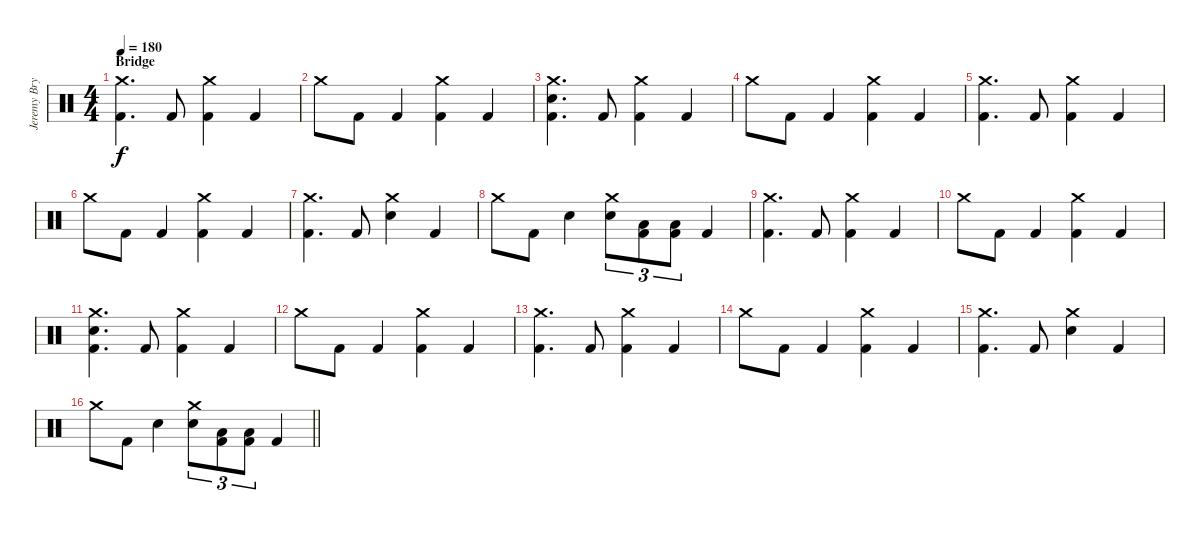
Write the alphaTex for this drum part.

\track ("Jeremy Bryan - Drums" "Jeremy Bry") {instrument percussion}
\staff {score}
\articulation defaults
\ts (4 4)
\section ("" "Bridge")
\tempo 180
\clef neutral
\ks c
("Crash medium (hit)" "Kick (hit) 2").4{d dy f} "Kick (hit) 2".8 ("Crash medium (hit)" "Kick (hit) 2").4 "Kick (hit) 2".4 |
"Crash medium (hit)".8 "Kick (hit) 2".8 "Kick (hit) 2".4 ("Crash medium (hit)" "Kick (hit) 2").4 "Kick (hit) 2".4 |
("Crash medium (hit)" "Electric Snare (hit)" "Kick (hit) 2").4{d} "Kick (hit) 2".8 ("Crash medium (hit)" "Kick (hit) 2").4 "Kick (hit) 2".4 |
"Crash medium (hit)".8 "Kick (hit) 2".8 "Kick (hit) 2".4 ("Crash medium (hit)" "Kick (hit) 2").4 "Kick (hit) 2".4 |
("Crash medium (hit)" "Kick (hit) 2").4{d} "Kick (hit) 2".8 ("Crash medium (hit)" "Kick (hit) 2").4 "Kick (hit) 2".4 |
"Crash medium (hit)".8 "Kick (hit) 2".8 "Kick (hit) 2".4 ("Crash medium (hit)" "Kick (hit) 2").4 "Kick (hit) 2".4 |
("Crash medium (hit)" "Kick (hit) 2").4{d} "Kick (hit) 2".8 ("Crash medium (hit)" "Electric Snare (hit)").4 "Kick (hit) 2".4 |
"Crash medium (hit)".8 "Kick (hit) 2".8 "Electric Snare (hit)".4 ("Crash medium (hit)" "Electric Snare (hit)").8{tu (3 2)} ("Low Tom (hit)" "Kick (hit) 2").8{tu (3 2)} ("Low Floor Tom (hit)" "Kick (hit) 2").8{tu (3 2)} "Kick (hit) 2".4 |
("Crash medium (hit)" "Kick (hit) 2").4{d} "Kick (hit) 2".8 ("Crash medium (hit)" "Kick (hit) 2").4 "Kick (hit) 2".4 |
"Crash medium (hit)".8 "Kick (hit) 2".8 "Kick (hit) 2".4 ("Crash medium (hit)" "Kick (hit) 2").4 "Kick (hit) 2".4 |
("Crash medium (hit)" "Electric Snare (hit)" "Kick (hit) 2").4{d} "Kick (hit) 2".8 ("Crash medium (hit)" "Kick (hit) 2").4 "Kick (hit) 2".4 |
"Crash medium (hit)".8 "Kick (hit) 2".8 "Kick (hit) 2".4 ("Crash medium (hit)" "Kick (hit) 2").4 "Kick (hit) 2".4 |
("Crash medium (hit)" "Kick (hit) 2").4{d} "Kick (hit) 2".8 ("Crash medium (hit)" "Kick (hit) 2").4 "Kick (hit) 2".4 |
"Crash medium (hit)".8 "Kick (hit) 2".8 "Kick (hit) 2".4 ("Crash medium (hit)" "Kick (hit) 2").4 "Kick (hit) 2".4 |
("Crash medium (hit)" "Kick (hit) 2").4{d} "Kick (hit) 2".8 ("Crash medium (hit)" "Electric Snare (hit)").4 "Kick (hit) 2".4 |
\barLineRight lightlight "Crash medium (hit)".8 "Kick (hit) 2".8 "Electric Snare (hit)".4
("Crash medium (hit)" "Electric Snare (hit)").8{tu (3 2)} ("Low Tom (hit)" "Kick (hit) 2").8{tu (3 2)} ("Low Floor Tom (hit)" "Kick (hit) 2").8{tu (3 2)} "Kick (hit) 2".4
